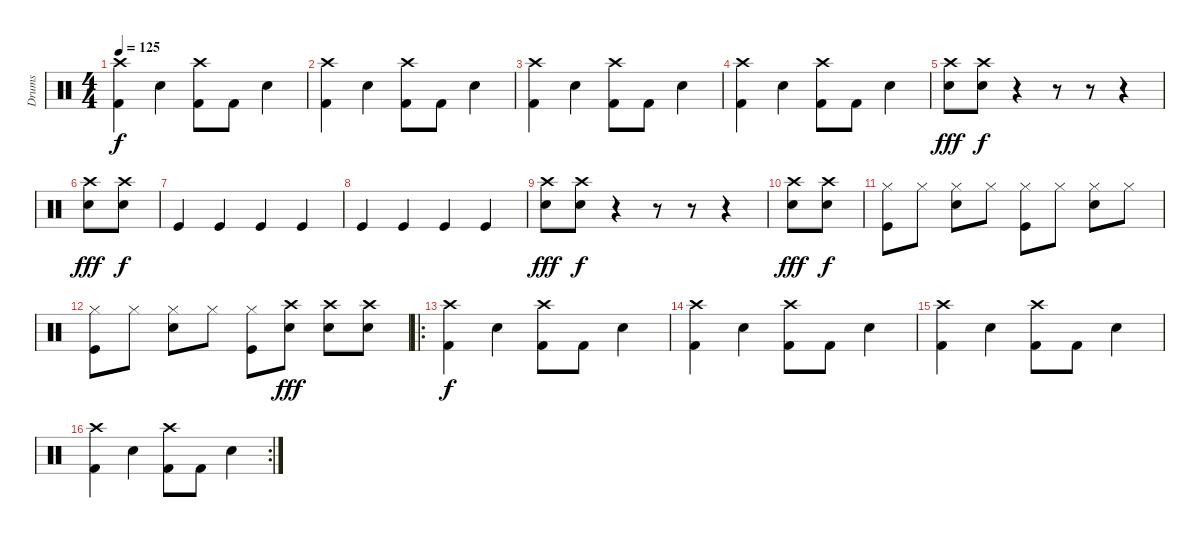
\track ("Drums" "Drums") {instrument percussion}
\staff {score}
\articulation defaults
\ts (4 4)
\tempo 125
\clef neutral
\ks c
("Crash high (hit)" "Kick (hit) 2").4{dy f} "Snare (hit) 2".4 ("Crash high (hit)" "Kick (hit) 2").8 "Kick (hit) 2".8 "Snare (hit) 2".4 |
("Crash high (hit)" "Kick (hit) 2").4 "Snare (hit) 2".4 ("Crash high (hit)" "Kick (hit) 2").8 "Kick (hit) 2".8 "Snare (hit) 2".4 |
("Crash high (hit)" "Kick (hit) 2").4 "Snare (hit) 2".4 ("Crash high (hit)" "Kick (hit) 2").8 "Kick (hit) 2".8 "Snare (hit) 2".4 |
("Crash high (hit)" "Kick (hit) 2").4 "Snare (hit) 2".4 ("Crash high (hit)" "Kick (hit) 2").8 "Kick (hit) 2".8 "Snare (hit) 2".4 |
("Crash high (hit)" "Snare (hit) 2").8{dy fff} ("Crash high (hit)" "Snare (hit) 2").8{dy f} r.4 r.8 r.8 r.4 |
("Crash high (hit)" "Snare (hit) 2").8{dy fff} ("Crash high (hit)" "Snare (hit) 2").8{dy f} |
"Kick (hit)".4 "Kick (hit)".4 "Kick (hit)".4 "Kick (hit)".4 |
"Kick (hit)".4 "Kick (hit)".4 "Kick (hit)".4 "Kick (hit)".4 |
("Crash high (hit)" "Snare (hit) 2").8{dy fff} ("Crash high (hit)" "Snare (hit) 2").8{dy f} r.4 r.8 r.8 r.4 |
("Crash high (hit)" "Snare (hit) 2").8{dy fff} ("Crash high (hit)" "Snare (hit) 2").8{dy f} |
("Hi-Hat (closed)" "Kick (hit)").8 "Hi-Hat (closed)".8 ("Hi-Hat (closed)" "Snare (hit) 2").8 "Hi-Hat (closed)".8 ("Hi-Hat (closed)" "Kick (hit)").8 "Hi-Hat (closed)".8 ("Hi-Hat (closed)" "Snare (hit) 2").8 "Hi-Hat (closed)".8 |
("Hi-Hat (closed)" "Kick (hit)").8 "Hi-Hat (closed)".8 ("Hi-Hat (closed)" "Snare (hit) 2").8 "Hi-Hat (closed)".8 ("Hi-Hat (closed)" "Kick (hit)").8 ("Snare (hit) 2" "Crash high (hit)").8{dy fff} ("Snare (hit) 2" "Crash high (hit)").8 ("Snare (hit) 2" "Crash high (hit)").8 |
\ro
("Crash high (hit)" "Kick (hit) 2").4{dy f} "Snare (hit) 2".4 ("Crash high (hit)" "Kick (hit) 2").8 "Kick (hit) 2".8 "Snare (hit) 2".4 |
("Crash high (hit)" "Kick (hit) 2").4 "Snare (hit) 2".4 ("Crash high (hit)" "Kick (hit) 2").8 "Kick (hit) 2".8 "Snare (hit) 2".4 |
("Crash high (hit)" "Kick (hit) 2").4 "Snare (hit) 2".4 ("Crash high (hit)" "Kick (hit) 2").8 "Kick (hit) 2".8 "Snare (hit) 2".4 |
\rc 2
("Crash high (hit)" "Kick (hit) 2").4 "Snare (hit) 2".4 ("Crash high (hit)" "Kick (hit) 2").8 "Kick (hit) 2".8 "Snare (hit) 2".4
